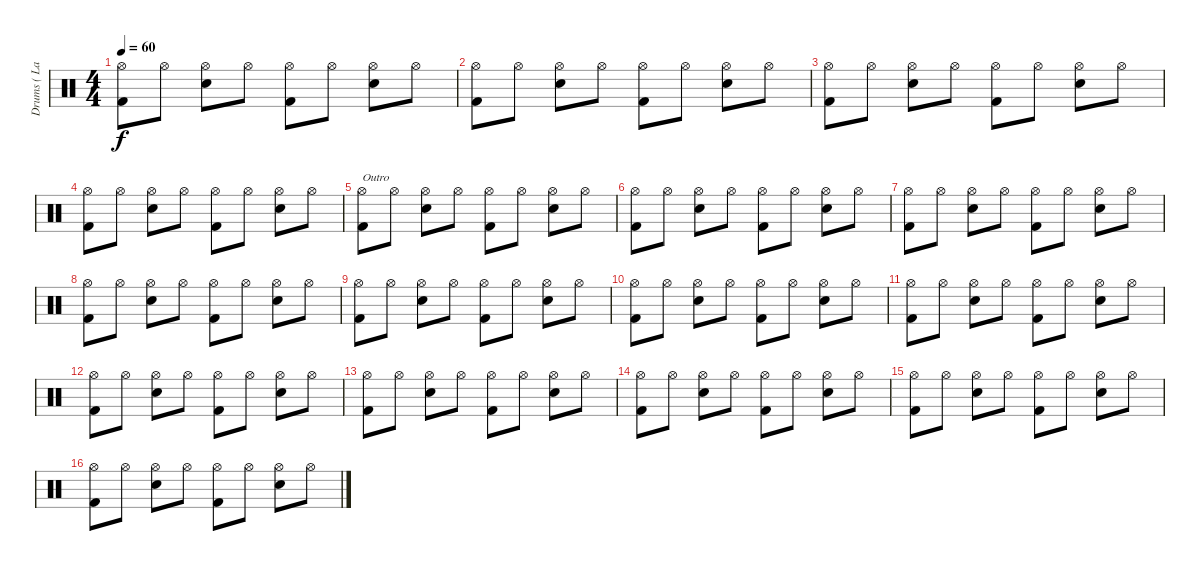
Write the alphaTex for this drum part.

\track ("Drums ( Lars )" "Drums ( La") {instrument percussion}
\staff {score}
\articulation defaults
\ts (4 4)
\tempo 60
\clef neutral
\ks c
("Kick (hit) 2" "Hi-Hat (open)").8{dy f} "Hi-Hat (open)".8 ("Snare (hit) 2" "Hi-Hat (open)").8 "Hi-Hat (open)".8 ("Kick (hit) 2" "Hi-Hat (open)").8 "Hi-Hat (open)".8 ("Snare (hit) 2" "Hi-Hat (open)").8 "Hi-Hat (open)".8 |
("Kick (hit) 2" "Hi-Hat (open)").8 "Hi-Hat (open)".8 ("Snare (hit) 2" "Hi-Hat (open)").8 "Hi-Hat (open)".8 ("Kick (hit) 2" "Hi-Hat (open)").8 "Hi-Hat (open)".8 ("Snare (hit) 2" "Hi-Hat (open)").8 "Hi-Hat (open)".8 |
("Kick (hit) 2" "Hi-Hat (open)").8 "Hi-Hat (open)".8 ("Snare (hit) 2" "Hi-Hat (open)").8 "Hi-Hat (open)".8 ("Kick (hit) 2" "Hi-Hat (open)").8 "Hi-Hat (open)".8 ("Snare (hit) 2" "Hi-Hat (open)").8 "Hi-Hat (open)".8 |
("Kick (hit) 2" "Hi-Hat (open)").8 "Hi-Hat (open)".8 ("Snare (hit) 2" "Hi-Hat (open)").8 "Hi-Hat (open)".8 ("Kick (hit) 2" "Hi-Hat (open)").8 "Hi-Hat (open)".8 ("Snare (hit) 2" "Hi-Hat (open)").8 "Hi-Hat (open)".8 |
("Kick (hit) 2" "Hi-Hat (open)").8{txt "Outro"} "Hi-Hat (open)".8 ("Snare (hit) 2" "Hi-Hat (open)").8 "Hi-Hat (open)".8 ("Kick (hit) 2" "Hi-Hat (open)").8 "Hi-Hat (open)".8 ("Snare (hit) 2" "Hi-Hat (open)").8 "Hi-Hat (open)".8 |
("Kick (hit) 2" "Hi-Hat (open)").8 "Hi-Hat (open)".8 ("Snare (hit) 2" "Hi-Hat (open)").8 "Hi-Hat (open)".8 ("Kick (hit) 2" "Hi-Hat (open)").8 "Hi-Hat (open)".8 ("Snare (hit) 2" "Hi-Hat (open)").8 "Hi-Hat (open)".8 |
("Kick (hit) 2" "Hi-Hat (open)").8 "Hi-Hat (open)".8 ("Snare (hit) 2" "Hi-Hat (open)").8 "Hi-Hat (open)".8 ("Kick (hit) 2" "Hi-Hat (open)").8 "Hi-Hat (open)".8 ("Snare (hit) 2" "Hi-Hat (open)").8 "Hi-Hat (open)".8 |
("Kick (hit) 2" "Hi-Hat (open)").8 "Hi-Hat (open)".8 ("Snare (hit) 2" "Hi-Hat (open)").8 "Hi-Hat (open)".8 ("Kick (hit) 2" "Hi-Hat (open)").8 "Hi-Hat (open)".8 ("Snare (hit) 2" "Hi-Hat (open)").8 "Hi-Hat (open)".8 |
("Kick (hit) 2" "Hi-Hat (open)").8 "Hi-Hat (open)".8 ("Snare (hit) 2" "Hi-Hat (open)").8 "Hi-Hat (open)".8 ("Kick (hit) 2" "Hi-Hat (open)").8 "Hi-Hat (open)".8 ("Snare (hit) 2" "Hi-Hat (open)").8 "Hi-Hat (open)".8 |
("Kick (hit) 2" "Hi-Hat (open)").8 "Hi-Hat (open)".8 ("Snare (hit) 2" "Hi-Hat (open)").8 "Hi-Hat (open)".8 ("Kick (hit) 2" "Hi-Hat (open)").8 "Hi-Hat (open)".8 ("Snare (hit) 2" "Hi-Hat (open)").8 "Hi-Hat (open)".8 |
("Kick (hit) 2" "Hi-Hat (open)").8 "Hi-Hat (open)".8 ("Snare (hit) 2" "Hi-Hat (open)").8 "Hi-Hat (open)".8 ("Kick (hit) 2" "Hi-Hat (open)").8 "Hi-Hat (open)".8 ("Snare (hit) 2" "Hi-Hat (open)").8 "Hi-Hat (open)".8 |
("Kick (hit) 2" "Hi-Hat (open)").8 "Hi-Hat (open)".8 ("Snare (hit) 2" "Hi-Hat (open)").8 "Hi-Hat (open)".8 ("Kick (hit) 2" "Hi-Hat (open)").8 "Hi-Hat (open)".8 ("Snare (hit) 2" "Hi-Hat (open)").8 "Hi-Hat (open)".8 |
("Kick (hit) 2" "Hi-Hat (open)").8 "Hi-Hat (open)".8 ("Snare (hit) 2" "Hi-Hat (open)").8 "Hi-Hat (open)".8 ("Kick (hit) 2" "Hi-Hat (open)").8 "Hi-Hat (open)".8 ("Snare (hit) 2" "Hi-Hat (open)").8 "Hi-Hat (open)".8 |
("Kick (hit) 2" "Hi-Hat (open)").8 "Hi-Hat (open)".8 ("Snare (hit) 2" "Hi-Hat (open)").8 "Hi-Hat (open)".8 ("Kick (hit) 2" "Hi-Hat (open)").8 "Hi-Hat (open)".8 ("Snare (hit) 2" "Hi-Hat (open)").8 "Hi-Hat (open)".8 |
("Kick (hit) 2" "Hi-Hat (open)").8 "Hi-Hat (open)".8 ("Snare (hit) 2" "Hi-Hat (open)").8 "Hi-Hat (open)".8 ("Kick (hit) 2" "Hi-Hat (open)").8 "Hi-Hat (open)".8 ("Snare (hit) 2" "Hi-Hat (open)").8 "Hi-Hat (open)".8 |
("Kick (hit) 2" "Hi-Hat (open)").8 "Hi-Hat (open)".8 ("Snare (hit) 2" "Hi-Hat (open)").8 "Hi-Hat (open)".8 ("Kick (hit) 2" "Hi-Hat (open)").8 "Hi-Hat (open)".8 ("Snare (hit) 2" "Hi-Hat (open)").8 "Hi-Hat (open)".8
